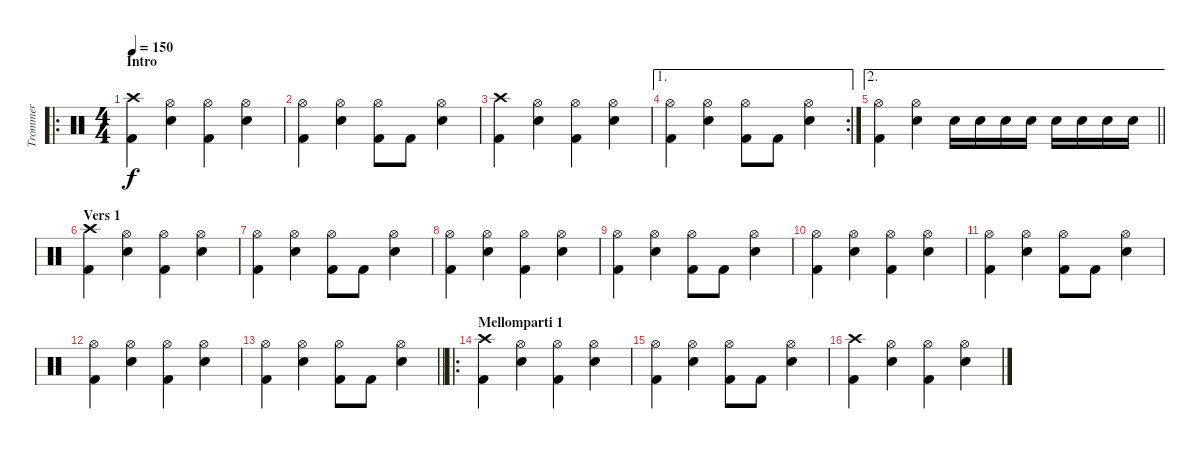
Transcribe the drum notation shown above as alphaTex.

\track ("Trommer" "Trommer") {instrument percussion}
\staff {score}
\articulation defaults
\ro
\ts (4 4)
\section ("" "Intro")
\tempo 150
\clef neutral
\ks c
("Crash high (hit)" "Kick (hit) 2").4{dy f} ("Hi-Hat (open)" "Snare (hit) 2").4 ("Hi-Hat (open)" "Kick (hit) 2").4 ("Hi-Hat (open)" "Snare (hit) 2").4 |
("Hi-Hat (open)" "Kick (hit) 2").4 ("Hi-Hat (open)" "Snare (hit) 2").4 ("Hi-Hat (open)" "Kick (hit) 2").8 "Kick (hit) 2".8 ("Hi-Hat (open)" "Snare (hit) 2").4 |
("Crash high (hit)" "Kick (hit) 2").4 ("Hi-Hat (open)" "Snare (hit) 2").4 ("Hi-Hat (open)" "Kick (hit) 2").4 ("Hi-Hat (open)" "Snare (hit) 2").4 |
\ae 1
\rc 2
("Hi-Hat (open)" "Kick (hit) 2").4 ("Hi-Hat (open)" "Snare (hit) 2").4 ("Hi-Hat (open)" "Kick (hit) 2").8 "Kick (hit) 2".8 ("Hi-Hat (open)" "Snare (hit) 2").4 |
\ae 2
\barLineRight lightlight
("Hi-Hat (open)" "Kick (hit) 2").4 ("Hi-Hat (open)" "Snare (hit) 2").4 "Snare (hit) 2".16 "Snare (hit) 2".16 "Snare (hit) 2".16 "Snare (hit) 2".16 "Snare (hit) 2".16 "Snare (hit) 2".16 "Snare (hit) 2".16 "Snare (hit) 2".16 |
\section ("" "Vers 1")
("Crash high (hit)" "Kick (hit) 2").4 ("Hi-Hat (open)" "Snare (hit) 2").4 ("Hi-Hat (open)" "Kick (hit) 2").4 ("Hi-Hat (open)" "Snare (hit) 2").4 |
("Hi-Hat (open)" "Kick (hit) 2").4 ("Hi-Hat (open)" "Snare (hit) 2").4 ("Hi-Hat (open)" "Kick (hit) 2").8 "Kick (hit) 2".8 ("Hi-Hat (open)" "Snare (hit) 2").4 |
("Hi-Hat (open)" "Kick (hit) 2").4 ("Hi-Hat (open)" "Snare (hit) 2").4 ("Hi-Hat (open)" "Kick (hit) 2").4 ("Hi-Hat (open)" "Snare (hit) 2").4 |
("Hi-Hat (open)" "Kick (hit) 2").4 ("Hi-Hat (open)" "Snare (hit) 2").4 ("Hi-Hat (open)" "Kick (hit) 2").8 "Kick (hit) 2".8 ("Hi-Hat (open)" "Snare (hit) 2").4 |
("Hi-Hat (open)" "Kick (hit) 2").4 ("Hi-Hat (open)" "Snare (hit) 2").4 ("Hi-Hat (open)" "Kick (hit) 2").4 ("Hi-Hat (open)" "Snare (hit) 2").4 |
("Hi-Hat (open)" "Kick (hit) 2").4 ("Hi-Hat (open)" "Snare (hit) 2").4 ("Hi-Hat (open)" "Kick (hit) 2").8 "Kick (hit) 2".8 ("Hi-Hat (open)" "Snare (hit) 2").4 |
("Hi-Hat (open)" "Kick (hit) 2").4 ("Hi-Hat (open)" "Snare (hit) 2").4 ("Hi-Hat (open)" "Kick (hit) 2").4 ("Hi-Hat (open)" "Snare (hit) 2").4 |
\barLineRight lightlight
("Hi-Hat (open)" "Kick (hit) 2").4 ("Hi-Hat (open)" "Snare (hit) 2").4 ("Hi-Hat (open)" "Kick (hit) 2").8 "Kick (hit) 2".8 ("Hi-Hat (open)" "Snare (hit) 2").4 |
\ro
\section ("" "Mellomparti 1")
("Crash high (hit)" "Kick (hit) 2").4 ("Hi-Hat (open)" "Snare (hit) 2").4 ("Hi-Hat (open)" "Kick (hit) 2").4 ("Hi-Hat (open)" "Snare (hit) 2").4 |
("Hi-Hat (open)" "Kick (hit) 2").4 ("Hi-Hat (open)" "Snare (hit) 2").4 ("Hi-Hat (open)" "Kick (hit) 2").8 "Kick (hit) 2".8 ("Hi-Hat (open)" "Snare (hit) 2").4 |
("Crash high (hit)" "Kick (hit) 2").4 ("Hi-Hat (open)" "Snare (hit) 2").4 ("Hi-Hat (open)" "Kick (hit) 2").4 ("Hi-Hat (open)" "Snare (hit) 2").4
